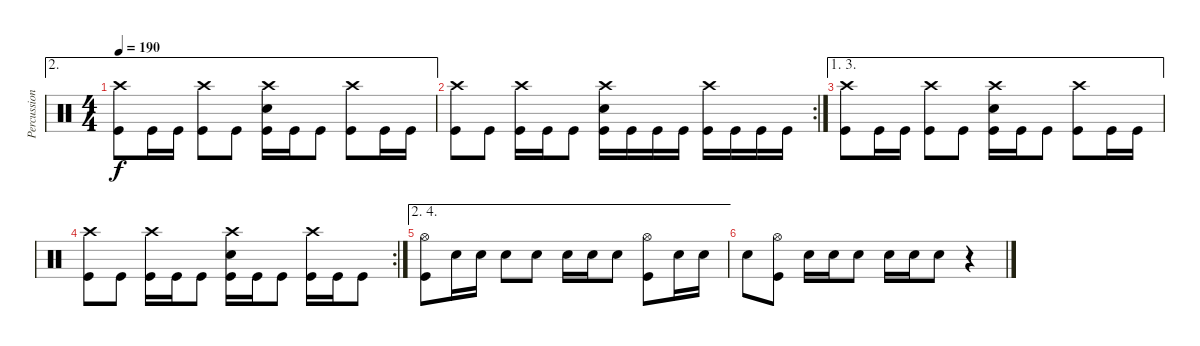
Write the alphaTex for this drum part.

\track ("Percussion" "Percussion") {instrument percussion}
\staff {score}
\articulation defaults
\ae 2
\ts (4 4)
\tempo 190
\clef neutral
\ks c
("Crash high (hit)" "Kick (hit)").8{dy f} "Kick (hit)".16 "Kick (hit)".16 ("Crash high (hit)" "Kick (hit)").8 "Kick (hit)".8 ("Crash high (hit)" "Electric Snare (hit)" "Kick (hit)").16 "Kick (hit)".16 "Kick (hit)".8 ("Crash high (hit)" "Kick (hit)").8 "Kick (hit)".16 "Kick (hit)".16 |
\rc 2
("Crash high (hit)" "Kick (hit)").8 "Kick (hit)".8 ("Crash high (hit)" "Kick (hit)").16 "Kick (hit)".16 "Kick (hit)".8 ("Crash high (hit)" "Electric Snare (hit)" "Kick (hit)").16 "Kick (hit)".16 "Kick (hit)".16 "Kick (hit)".16 ("Crash high (hit)" "Kick (hit)").16 "Kick (hit)".16 "Kick (hit)".16 "Kick (hit)".16 |
\ae (1 3)
("Crash high (hit)" "Kick (hit)").8 "Kick (hit)".16 "Kick (hit)".16 ("Crash high (hit)" "Kick (hit)").8 "Kick (hit)".8 ("Crash high (hit)" "Electric Snare (hit)" "Kick (hit)").16 "Kick (hit)".16 "Kick (hit)".8 ("Crash high (hit)" "Kick (hit)").8 "Kick (hit)".16 "Kick (hit)".16 |
\rc 2
("Crash high (hit)" "Kick (hit)").8 "Kick (hit)".8 ("Crash high (hit)" "Kick (hit)").16 "Kick (hit)".16 "Kick (hit)".8 ("Crash high (hit)" "Electric Snare (hit)" "Kick (hit)").16 "Kick (hit)".16 "Kick (hit)".8 ("Crash high (hit)" "Kick (hit)").16 "Kick (hit)".16 "Kick (hit)".8 |
\ae (2 4)
("Hi-Hat (open)" "Kick (hit)").8 "Electric Snare (hit)".16 "Electric Snare (hit)".16 "Electric Snare (hit)".8 "Electric Snare (hit)".8 "Electric Snare (hit)".16 "Electric Snare (hit)".16 "Electric Snare (hit)".8 ("Hi-Hat (open)" "Kick (hit)").8 "Electric Snare (hit)".16 "Electric Snare (hit)".16 |
"Electric Snare (hit)".8 ("Hi-Hat (open)" "Kick (hit)").8 "Electric Snare (hit)".16 "Electric Snare (hit)".16 "Electric Snare (hit)".8 "Electric Snare (hit)".16 "Electric Snare (hit)".16 "Electric Snare (hit)".8 r.4
